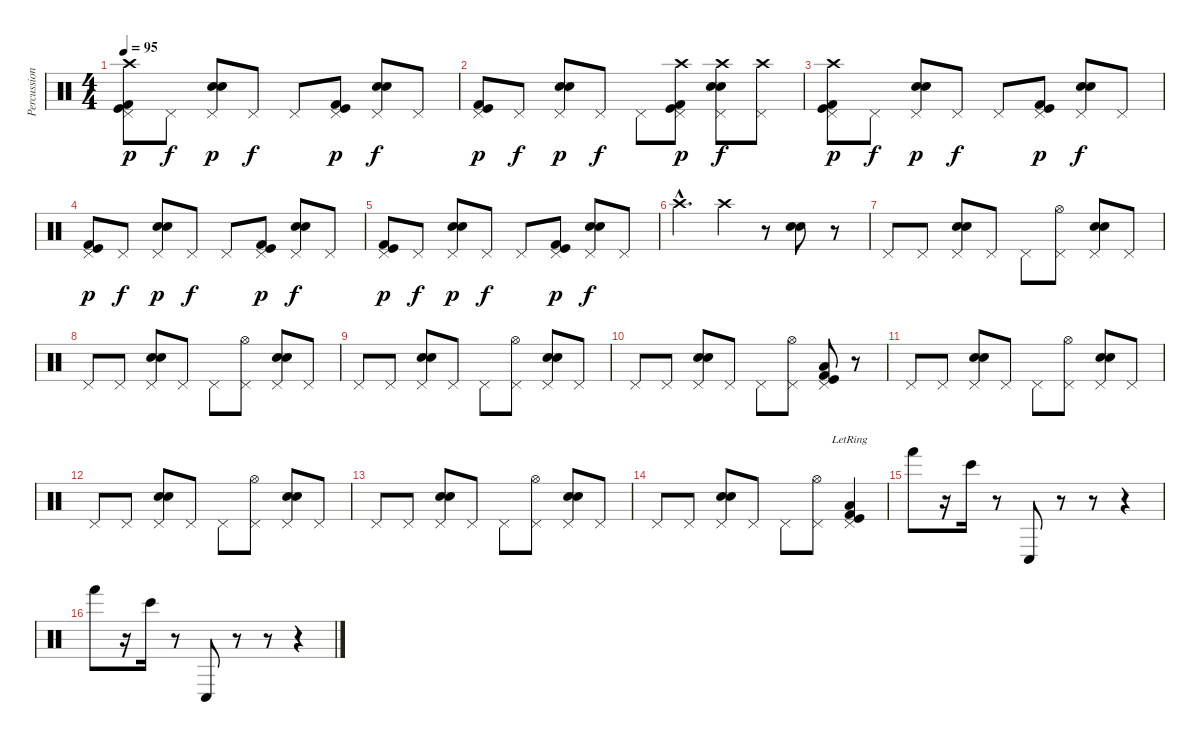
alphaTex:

\track ("Percussion (1)" "Percussion") {instrument percussion}
\staff {score}
\articulation defaults
\ts (4 4)
\tempo 95
\clef neutral
\ks c
("Pedal Hi-Hat (hit)" "Kick (hit)" "Kick (hit) 2" "Crash high (hit)").8{dy p} "Pedal Hi-Hat (hit)".8{dy f} ("Pedal Hi-Hat (hit)" "Snare (hit) 2" "Electric Snare (hit)").8{dy p} "Pedal Hi-Hat (hit)".8{dy f} "Pedal Hi-Hat (hit)".8 ("Pedal Hi-Hat (hit)" "Kick (hit)" "Kick (hit) 2").8{dy p} ("Pedal Hi-Hat (hit)" "Snare (hit) 2" "Electric Snare (hit)").8{dy f} "Pedal Hi-Hat (hit)".8 |
("Pedal Hi-Hat (hit)" "Kick (hit)" "Kick (hit) 2").8{dy p} "Pedal Hi-Hat (hit)".8{dy f} ("Pedal Hi-Hat (hit)" "Snare (hit) 2" "Electric Snare (hit)").8{dy p} "Pedal Hi-Hat (hit)".8{dy f} "Pedal Hi-Hat (hit)".8 ("Pedal Hi-Hat (hit)" "Kick (hit)" "Kick (hit) 2" "Crash high (hit)").8{dy p} ("Pedal Hi-Hat (hit)" "Snare (hit) 2" "Electric Snare (hit)" "Crash high (hit)").8{dy f} ("Pedal Hi-Hat (hit)" "Crash high (hit)").8 |
("Pedal Hi-Hat (hit)" "Kick (hit)" "Kick (hit) 2" "Crash high (hit)").8{dy p} "Pedal Hi-Hat (hit)".8{dy f} ("Pedal Hi-Hat (hit)" "Snare (hit) 2" "Electric Snare (hit)").8{dy p} "Pedal Hi-Hat (hit)".8{dy f} "Pedal Hi-Hat (hit)".8 ("Pedal Hi-Hat (hit)" "Kick (hit)" "Kick (hit) 2").8{dy p} ("Pedal Hi-Hat (hit)" "Snare (hit) 2" "Electric Snare (hit)").8{dy f} "Pedal Hi-Hat (hit)".8 |
("Pedal Hi-Hat (hit)" "Kick (hit)" "Kick (hit) 2").8{dy p} "Pedal Hi-Hat (hit)".8{dy f} ("Pedal Hi-Hat (hit)" "Snare (hit) 2" "Electric Snare (hit)").8{dy p} "Pedal Hi-Hat (hit)".8{dy f} "Pedal Hi-Hat (hit)".8 ("Pedal Hi-Hat (hit)" "Kick (hit)" "Kick (hit) 2").8{dy p} ("Pedal Hi-Hat (hit)" "Snare (hit) 2" "Electric Snare (hit)").8{dy f} "Pedal Hi-Hat (hit)".8 |
("Pedal Hi-Hat (hit)" "Kick (hit)" "Kick (hit) 2").8{dy p} "Pedal Hi-Hat (hit)".8{dy f} ("Pedal Hi-Hat (hit)" "Snare (hit) 2" "Electric Snare (hit)").8{dy p} "Pedal Hi-Hat (hit)".8{dy f} "Pedal Hi-Hat (hit)".8 ("Pedal Hi-Hat (hit)" "Kick (hit)" "Kick (hit) 2").8{dy p} ("Pedal Hi-Hat (hit)" "Snare (hit) 2" "Electric Snare (hit)").8{dy f} "Pedal Hi-Hat (hit)".8 |
"Crash high (hit)"{hac}.4{d} "Crash high (hit)".4 r.8 ("Snare (hit) 2" "Electric Snare (hit)").8 r.8 |
"Pedal Hi-Hat (hit)".8 "Pedal Hi-Hat (hit)".8 ("Pedal Hi-Hat (hit)" "Snare (hit) 2" "Electric Snare (hit)").8 "Pedal Hi-Hat (hit)".8 "Pedal Hi-Hat (hit)".8 ("Pedal Hi-Hat (hit)" "Hi-Hat (open)").8 ("Pedal Hi-Hat (hit)" "Snare (hit) 2" "Electric Snare (hit)").8 "Pedal Hi-Hat (hit)".8 |
"Pedal Hi-Hat (hit)".8 "Pedal Hi-Hat (hit)".8 ("Pedal Hi-Hat (hit)" "Snare (hit) 2" "Electric Snare (hit)").8 "Pedal Hi-Hat (hit)".8 "Pedal Hi-Hat (hit)".8 ("Pedal Hi-Hat (hit)" "Hi-Hat (open)").8 ("Pedal Hi-Hat (hit)" "Snare (hit) 2" "Electric Snare (hit)").8 "Pedal Hi-Hat (hit)".8 |
"Pedal Hi-Hat (hit)".8 "Pedal Hi-Hat (hit)".8 ("Pedal Hi-Hat (hit)" "Snare (hit) 2" "Electric Snare (hit)").8 "Pedal Hi-Hat (hit)".8 "Pedal Hi-Hat (hit)".8 ("Pedal Hi-Hat (hit)" "Hi-Hat (open)").8 ("Pedal Hi-Hat (hit)" "Snare (hit) 2" "Electric Snare (hit)").8 "Pedal Hi-Hat (hit)".8 |
"Pedal Hi-Hat (hit)".8 "Pedal Hi-Hat (hit)".8 ("Pedal Hi-Hat (hit)" "Snare (hit) 2" "Electric Snare (hit)").8 "Pedal Hi-Hat (hit)".8 "Pedal Hi-Hat (hit)".8 ("Pedal Hi-Hat (hit)" "Hi-Hat (open)").8 ("Pedal Hi-Hat (hit)" "Kick (hit) 2" "Kick (hit)" "Low Floor Tom (hit)").8 r.8 |
"Pedal Hi-Hat (hit)".8 "Pedal Hi-Hat (hit)".8 ("Pedal Hi-Hat (hit)" "Snare (hit) 2" "Electric Snare (hit)").8 "Pedal Hi-Hat (hit)".8 "Pedal Hi-Hat (hit)".8 ("Pedal Hi-Hat (hit)" "Hi-Hat (open)").8 ("Pedal Hi-Hat (hit)" "Snare (hit) 2" "Electric Snare (hit)").8 "Pedal Hi-Hat (hit)".8 |
"Pedal Hi-Hat (hit)".8 "Pedal Hi-Hat (hit)".8 ("Pedal Hi-Hat (hit)" "Snare (hit) 2" "Electric Snare (hit)").8 "Pedal Hi-Hat (hit)".8 "Pedal Hi-Hat (hit)".8 ("Pedal Hi-Hat (hit)" "Hi-Hat (open)").8 ("Pedal Hi-Hat (hit)" "Snare (hit) 2" "Electric Snare (hit)").8 "Pedal Hi-Hat (hit)".8 |
"Pedal Hi-Hat (hit)".8 "Pedal Hi-Hat (hit)".8 ("Pedal Hi-Hat (hit)" "Snare (hit) 2" "Electric Snare (hit)").8 "Pedal Hi-Hat (hit)".8 "Pedal Hi-Hat (hit)".8 ("Pedal Hi-Hat (hit)" "Hi-Hat (open)").8 ("Pedal Hi-Hat (hit)" "Snare (hit) 2" "Electric Snare (hit)").8 "Pedal Hi-Hat (hit)".8 |
"Pedal Hi-Hat (hit)".8 "Pedal Hi-Hat (hit)".8 ("Pedal Hi-Hat (hit)" "Snare (hit) 2" "Electric Snare (hit)").8 "Pedal Hi-Hat (hit)".8 "Pedal Hi-Hat (hit)".8 ("Pedal Hi-Hat (hit)" "Hi-Hat (open)").8 ("Pedal Hi-Hat (hit)"{lr} "Kick (hit) 2"{lr} "Kick (hit)"{lr} "Low Floor Tom (hit)"{lr}).4 |
"Hand (hit)".8 r.16 "Bongo High (hit)".16 r.8 "Conga low (hit)".8 r.8 r.8 r.4 |
"Hand (hit)".8 r.16 "Bongo High (hit)".16 r.8 "Conga low (hit)".8 r.8 r.8 r.4
